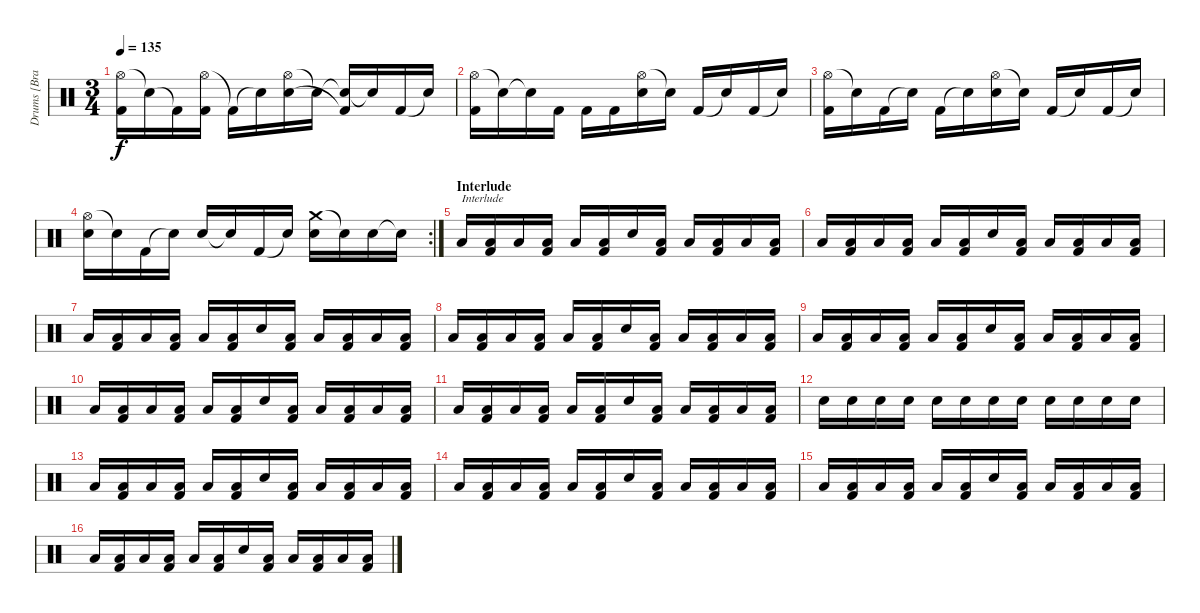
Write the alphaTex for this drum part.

\track ("Drums [Brann Dailor]" "Drums [Bra") {instrument percussion}
\staff {score}
\articulation defaults
\ts (3 4)
\tempo 135
\clef neutral
\ks c
("Hi-Hat (open)" "Kick (hit) 2").16{dy f} "Snare (hit)"{t}.16 "Kick (hit) 2"{t}.16 ("Hi-Hat (open)" "Kick (hit) 2").16 "Kick (hit) 2"{t}.16 "Snare (hit)"{t}.16 ("Hi-Hat (open)" "Electric Snare (hit)").16 "Snare (hit)"{t}.16 ("Snare (hit)"{t} "Kick (hit) 2"{t}).16 "Snare (hit)"{t}.16 "Kick (hit) 2".16 "Snare (hit)"{t}.16 |
("Hi-Hat (open)" "Kick (hit) 2").16 "Snare (hit)"{t}.16 "Snare (hit)"{t}.16 "Kick (hit) 2".16 "Kick (hit) 2".16 "Kick (hit) 2".16 ("Hi-Hat (open)" "Electric Snare (hit)").16 "Snare (hit)"{t}.16 "Kick (hit) 2".16 "Snare (hit)"{t}.16 "Kick (hit) 2".16 "Snare (hit)"{t}.16 |
("Hi-Hat (open)" "Kick (hit) 2").16 "Snare (hit)"{t}.16 "Kick (hit) 2".16 "Snare (hit)"{t}.16 "Kick (hit) 2".16 "Snare (hit)"{t}.16 ("Hi-Hat (open)" "Electric Snare (hit)").16 "Snare (hit)"{t}.16 "Kick (hit) 2".16 "Snare (hit)"{t}.16 "Kick (hit) 2".16 "Snare (hit)"{t}.16 |
\rc 2
("Hi-Hat (open)" "Electric Snare (hit)").16 "Snare (hit)"{t}.16 "Kick (hit) 2".16 "Snare (hit)"{t}.16 "Electric Snare (hit)".16 "Snare (hit)"{t}.16 "Kick (hit) 2".16 "Snare (hit)"{t}.16 ("Crash medium (hit)" "Electric Snare (hit)").16 "Snare (hit)"{t}.16 "Electric Snare (hit)".16 "Snare (hit)"{t}.16 |
\section ("" "Interlude")
"Low Tom (hit)".16{txt "Interlude"} ("Low Tom (hit)" "Kick (hit) 2").16 "Low Tom (hit)".16 ("Low Tom (hit)" "Kick (hit) 2").16 "Low Tom (hit)".16 ("Low Tom (hit)" "Kick (hit) 2").16 "Electric Snare (hit)".16 ("Low Tom (hit)" "Kick (hit) 2").16 "Low Tom (hit)".16 ("Low Tom (hit)" "Kick (hit) 2").16 "Low Tom (hit)".16 ("Low Tom (hit)" "Kick (hit) 2").16 |
"Low Tom (hit)".16 ("Low Tom (hit)" "Kick (hit) 2").16 "Low Tom (hit)".16 ("Low Tom (hit)" "Kick (hit) 2").16 "Low Tom (hit)".16 ("Low Tom (hit)" "Kick (hit) 2").16 "Electric Snare (hit)".16 ("Low Tom (hit)" "Kick (hit) 2").16 "Low Tom (hit)".16 ("Low Tom (hit)" "Kick (hit) 2").16 "Low Tom (hit)".16 ("Low Tom (hit)" "Kick (hit) 2").16 |
"Low Tom (hit)".16 ("Low Tom (hit)" "Kick (hit) 2").16 "Low Tom (hit)".16 ("Low Tom (hit)" "Kick (hit) 2").16 "Low Tom (hit)".16 ("Low Tom (hit)" "Kick (hit) 2").16 "Electric Snare (hit)".16 ("Low Tom (hit)" "Kick (hit) 2").16 "Low Tom (hit)".16 ("Low Tom (hit)" "Kick (hit) 2").16 "Low Tom (hit)".16 ("Low Tom (hit)" "Kick (hit) 2").16 |
"Low Tom (hit)".16 ("Low Tom (hit)" "Kick (hit) 2").16 "Low Tom (hit)".16 ("Low Tom (hit)" "Kick (hit) 2").16 "Low Tom (hit)".16 ("Low Tom (hit)" "Kick (hit) 2").16 "Electric Snare (hit)".16 ("Low Tom (hit)" "Kick (hit) 2").16 "Low Tom (hit)".16 ("Low Tom (hit)" "Kick (hit) 2").16 "Low Tom (hit)".16 ("Low Tom (hit)" "Kick (hit) 2").16 |
"Low Tom (hit)".16 ("Low Tom (hit)" "Kick (hit) 2").16 "Low Tom (hit)".16 ("Low Tom (hit)" "Kick (hit) 2").16 "Low Tom (hit)".16 ("Low Tom (hit)" "Kick (hit) 2").16 "Electric Snare (hit)".16 ("Low Tom (hit)" "Kick (hit) 2").16 "Low Tom (hit)".16 ("Low Tom (hit)" "Kick (hit) 2").16 "Low Tom (hit)".16 ("Low Tom (hit)" "Kick (hit) 2").16 |
"Low Tom (hit)".16 ("Low Tom (hit)" "Kick (hit) 2").16 "Low Tom (hit)".16 ("Low Tom (hit)" "Kick (hit) 2").16 "Low Tom (hit)".16 ("Low Tom (hit)" "Kick (hit) 2").16 "Electric Snare (hit)".16 ("Low Tom (hit)" "Kick (hit) 2").16 "Low Tom (hit)".16 ("Low Tom (hit)" "Kick (hit) 2").16 "Low Tom (hit)".16 ("Low Tom (hit)" "Kick (hit) 2").16 |
"Low Tom (hit)".16 ("Low Tom (hit)" "Kick (hit) 2").16 "Low Tom (hit)".16 ("Low Tom (hit)" "Kick (hit) 2").16 "Low Tom (hit)".16 ("Low Tom (hit)" "Kick (hit) 2").16 "Electric Snare (hit)".16 ("Low Tom (hit)" "Kick (hit) 2").16 "Low Tom (hit)".16 ("Low Tom (hit)" "Kick (hit) 2").16 "Low Tom (hit)".16 ("Low Tom (hit)" "Kick (hit) 2").16 |
"Electric Snare (hit)".16 "Electric Snare (hit)".16 "Electric Snare (hit)".16 "Electric Snare (hit)".16 "Electric Snare (hit)".16 "Electric Snare (hit)".16 "Electric Snare (hit)".16 "Electric Snare (hit)".16 "Electric Snare (hit)".16 "Electric Snare (hit)".16 "Electric Snare (hit)".16 "Electric Snare (hit)".16 |
"Low Tom (hit)".16 ("Low Tom (hit)" "Kick (hit) 2").16 "Low Tom (hit)".16 ("Low Tom (hit)" "Kick (hit) 2").16 "Low Tom (hit)".16 ("Low Tom (hit)" "Kick (hit) 2").16 "Electric Snare (hit)".16 ("Low Tom (hit)" "Kick (hit) 2").16 "Low Tom (hit)".16 ("Low Tom (hit)" "Kick (hit) 2").16 "Low Tom (hit)".16 ("Low Tom (hit)" "Kick (hit) 2").16 |
"Low Tom (hit)".16 ("Low Tom (hit)" "Kick (hit) 2").16 "Low Tom (hit)".16 ("Low Tom (hit)" "Kick (hit) 2").16 "Low Tom (hit)".16 ("Low Tom (hit)" "Kick (hit) 2").16 "Electric Snare (hit)".16 ("Low Tom (hit)" "Kick (hit) 2").16 "Low Tom (hit)".16 ("Low Tom (hit)" "Kick (hit) 2").16 "Low Tom (hit)".16 ("Low Tom (hit)" "Kick (hit) 2").16 |
"Low Tom (hit)".16 ("Low Tom (hit)" "Kick (hit) 2").16 "Low Tom (hit)".16 ("Low Tom (hit)" "Kick (hit) 2").16 "Low Tom (hit)".16 ("Low Tom (hit)" "Kick (hit) 2").16 "Electric Snare (hit)".16 ("Low Tom (hit)" "Kick (hit) 2").16 "Low Tom (hit)".16 ("Low Tom (hit)" "Kick (hit) 2").16 "Low Tom (hit)".16 ("Low Tom (hit)" "Kick (hit) 2").16 |
"Low Tom (hit)".16 ("Low Tom (hit)" "Kick (hit) 2").16 "Low Tom (hit)".16 ("Low Tom (hit)" "Kick (hit) 2").16 "Low Tom (hit)".16 ("Low Tom (hit)" "Kick (hit) 2").16 "Electric Snare (hit)".16 ("Low Tom (hit)" "Kick (hit) 2").16 "Low Tom (hit)".16 ("Low Tom (hit)" "Kick (hit) 2").16 "Low Tom (hit)".16 ("Low Tom (hit)" "Kick (hit) 2").16
